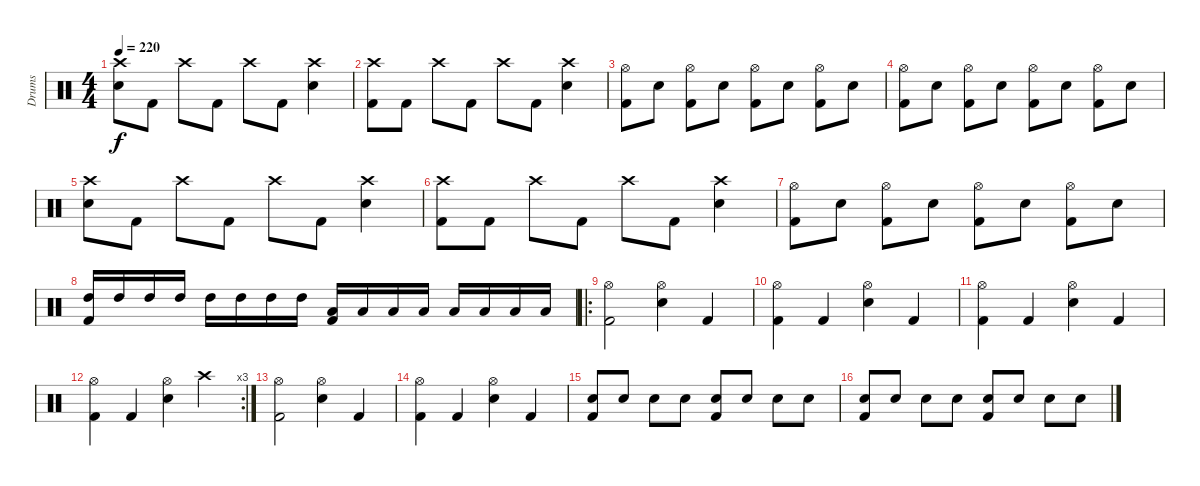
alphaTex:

\track ("Drums" "Drums") {instrument percussion}
\staff {score}
\articulation defaults
\ts (4 4)
\tempo 220
\clef neutral
\ks c
("Crash high (hit)" "Snare (hit) 2").8{dy f} "Kick (hit) 2".8 "Crash high (hit)".8 "Kick (hit) 2".8 "Crash high (hit)".8 "Kick (hit) 2".8 ("Crash high (hit)" "Snare (hit) 2").4 |
("Crash high (hit)" "Kick (hit) 2").8 "Kick (hit) 2".8 "Crash high (hit)".8 "Kick (hit) 2".8 "Crash high (hit)".8 "Kick (hit) 2".8 ("Crash high (hit)" "Snare (hit) 2").4 |
("Hi-Hat (open)" "Kick (hit) 2").8 "Snare (hit) 2".8 ("Hi-Hat (open)" "Kick (hit) 2").8 "Snare (hit) 2".8 ("Hi-Hat (open)" "Kick (hit) 2").8 "Snare (hit) 2".8 ("Hi-Hat (open)" "Kick (hit) 2").8 "Snare (hit) 2".8 |
("Hi-Hat (open)" "Kick (hit) 2").8 "Snare (hit) 2".8 ("Hi-Hat (open)" "Kick (hit) 2").8 "Snare (hit) 2".8 ("Hi-Hat (open)" "Kick (hit) 2").8 "Snare (hit) 2".8 ("Hi-Hat (open)" "Kick (hit) 2").8 "Snare (hit) 2".8 |
("Crash high (hit)" "Snare (hit) 2").8 "Kick (hit) 2".8 "Crash high (hit)".8 "Kick (hit) 2".8 "Crash high (hit)".8 "Kick (hit) 2".8 ("Crash high (hit)" "Snare (hit) 2").4 |
("Crash high (hit)" "Kick (hit) 2").8 "Kick (hit) 2".8 "Crash high (hit)".8 "Kick (hit) 2".8 "Crash high (hit)".8 "Kick (hit) 2".8 ("Crash high (hit)" "Snare (hit) 2").4 |
("Hi-Hat (open)" "Kick (hit) 2").8 "Snare (hit) 2".8 ("Hi-Hat (open)" "Kick (hit) 2").8 "Snare (hit) 2".8 ("Hi-Hat (open)" "Kick (hit) 2").8 "Snare (hit) 2".8 ("Hi-Hat (open)" "Kick (hit) 2").8 "Snare (hit) 2".8 |
("High Tom (hit)" "Kick (hit) 2").16 "High Tom (hit)".16 "High Tom (hit)".16 "High Tom (hit)".16 "High Tom (hit)".16 "High Tom (hit)".16 "High Tom (hit)".16 "High Tom (hit)".16 ("Low Tom (hit)" "Kick (hit) 2").16 "Low Tom (hit)".16 "Low Tom (hit)".16 "Low Tom (hit)".16 "Low Tom (hit)".16 "Low Tom (hit)".16 "Low Tom (hit)".16 "Low Tom (hit)".16 |
\ro
("Hi-Hat (open)" "Kick (hit) 2").2 ("Hi-Hat (open)" "Snare (hit) 2").4 "Kick (hit) 2".4 |
("Hi-Hat (open)" "Kick (hit) 2").4 "Kick (hit) 2".4 ("Hi-Hat (open)" "Snare (hit) 2").4 "Kick (hit) 2".4 |
("Hi-Hat (open)" "Kick (hit) 2").4 "Kick (hit) 2".4 ("Hi-Hat (open)" "Snare (hit) 2").4 "Kick (hit) 2".4 |
\rc 3
("Hi-Hat (open)" "Kick (hit) 2").4 "Kick (hit) 2".4 ("Hi-Hat (open)" "Snare (hit) 2").4 "Crash high (hit)".4 |
("Hi-Hat (open)" "Kick (hit) 2").2 ("Hi-Hat (open)" "Snare (hit) 2").4 "Kick (hit) 2".4 |
("Hi-Hat (open)" "Kick (hit) 2").4 "Kick (hit) 2".4 ("Hi-Hat (open)" "Snare (hit) 2").4 "Kick (hit) 2".4 |
("Snare (hit) 2" "Kick (hit) 2").8 "Snare (hit) 2".8 "Snare (hit) 2".8 "Snare (hit) 2".8 ("Snare (hit) 2" "Kick (hit) 2").8 "Snare (hit) 2".8 "Snare (hit) 2".8 "Snare (hit) 2".8 |
("Snare (hit) 2" "Kick (hit) 2").8 "Snare (hit) 2".8 "Snare (hit) 2".8 "Snare (hit) 2".8 ("Snare (hit) 2" "Kick (hit) 2").8 "Snare (hit) 2".8 "Snare (hit) 2".8 "Snare (hit) 2".8
